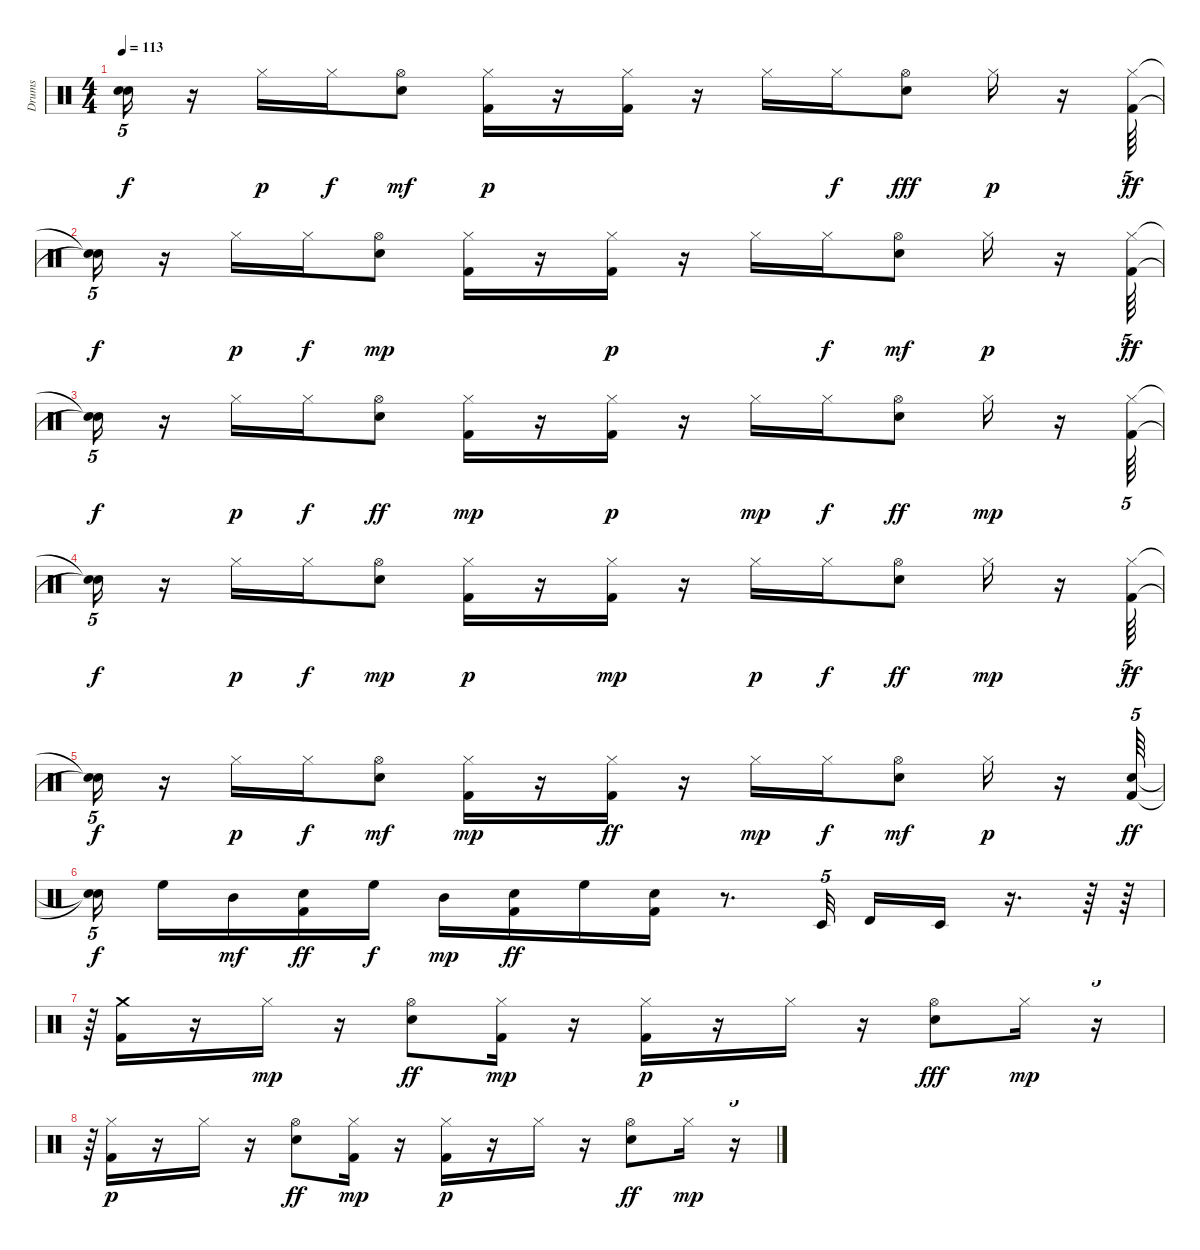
\track ("Drums" "Drums") {instrument percussion}
\staff {score}
\articulation defaults
\ts (4 4)
\tempo 113
\clef neutral
\ks c
("Snare (hit)"{t} "Snare (hit)"{t}).16{tu (5 4) dy f} r.16 "Hi-Hat (closed)".16{dy p} "Hi-Hat (closed)".16{dy f} ("Electric Snare (hit)" "Hi-Hat (open)").8{dy mf} ("Kick (hit) 2" "Hi-Hat (closed)").16{dy p} r.16 ("Kick (hit) 2" "Hi-Hat (closed)").16 r.16 "Hi-Hat (closed)".16 "Hi-Hat (closed)".16{dy f} ("Electric Snare (hit)" "Hi-Hat (open)").8{dy fff} "Hi-Hat (closed)".16{dy p} r.16 ("Hi-Hat (closed)" "Kick (hit) 2").64{tu (5 4) dy ff} |
("Snare (hit)"{t} "Snare (hit)"{t}).16{tu (5 4) dy f} r.16 "Hi-Hat (closed)".16{dy p} "Hi-Hat (closed)".16{dy f} ("Electric Snare (hit)" "Hi-Hat (open)").8{dy mp} ("Hi-Hat (closed)" "Kick (hit) 2").16 r.16 ("Kick (hit) 2" "Hi-Hat (closed)").16{dy p} r.16 "Hi-Hat (closed)".16 "Hi-Hat (closed)".16{dy f} ("Electric Snare (hit)" "Hi-Hat (open)").8{dy mf} "Hi-Hat (closed)".16{dy p} r.16 ("Hi-Hat (closed)" "Kick (hit) 2").64{tu (5 4) dy ff} |
("Snare (hit)"{t} "Snare (hit)"{t}).16{tu (5 4) dy f} r.16 "Hi-Hat (closed)".16{dy p} "Hi-Hat (closed)".16{dy f} ("Hi-Hat (open)" "Electric Snare (hit)").8{dy ff} ("Kick (hit) 2" "Hi-Hat (closed)").16{dy mp} r.16 ("Hi-Hat (closed)" "Kick (hit) 2").16{dy p} r.16 "Hi-Hat (closed)".16{dy mp} "Hi-Hat (closed)".16{dy f} ("Hi-Hat (open)" "Electric Snare (hit)").8{dy ff} "Hi-Hat (closed)".16{dy mp} r.16 ("Kick (hit) 2" "Hi-Hat (closed)").64{tu (5 4)} |
("Snare (hit)"{t} "Snare (hit)"{t}).16{tu (5 4) dy f} r.16 "Hi-Hat (closed)".16{dy p} "Hi-Hat (closed)".16{dy f} ("Electric Snare (hit)" "Hi-Hat (open)").8{dy mp} ("Hi-Hat (closed)" "Kick (hit) 2").16{dy p} r.16 ("Hi-Hat (closed)" "Kick (hit) 2").16{dy mp} r.16 "Hi-Hat (closed)".16{dy p} "Hi-Hat (closed)".16{dy f} ("Hi-Hat (open)" "Electric Snare (hit)").8{dy ff} "Hi-Hat (closed)".16{dy mp} r.16 ("Hi-Hat (closed)" "Kick (hit) 2").64{tu (5 4) dy ff} |
("Snare (hit)"{t} "Snare (hit)"{t}).16{tu (5 4) dy f} r.16 "Hi-Hat (closed)".16{dy p} "Hi-Hat (closed)".16{dy f} ("Electric Snare (hit)" "Hi-Hat (open)").8{dy mf} ("Kick (hit) 2" "Hi-Hat (closed)").16{dy mp} r.16 ("Hi-Hat (closed)" "Kick (hit) 2").16{dy ff} r.16 "Hi-Hat (closed)".16{dy mp} "Hi-Hat (closed)".16{dy f} ("Electric Snare (hit)" "Hi-Hat (open)").8{dy mf} "Hi-Hat (closed)".16{dy p} r.16 ("Kick (hit) 2" "Electric Snare (hit)").64{tu (5 4) dy ff} |
("Snare (hit)"{t} "Snare (hit)"{t}).16{tu (5 4) dy f beam splitsecondary} "High Floor Tom (hit)".16 "Mid Tom (hit)".16{dy mf} ("Kick (hit) 2" "Electric Snare (hit)").16{dy ff} "High Floor Tom (hit)".16{dy f} "Mid Tom (hit)".16{dy mp} ("Kick (hit) 2" "Electric Snare (hit)").16{dy ff} "High Floor Tom (hit)".16 ("Kick (hit) 2" "Electric Snare (hit)").16 r.8{d} "Timbale low (hit)".32{tu (5 4)} "Timbale high (hit)".16 "Timbale low (hit)".16 r.16{d} r.64 r.64 |
r.64{tu (5 4)} ("Crash medium (hit)" "Kick (hit) 2").16 r.16 "Hi-Hat (closed)".16{dy mp} r.16 ("Hi-Hat (open)" "Electric Snare (hit)").8{dy ff} ("Kick (hit) 2" "Hi-Hat (closed)").16{dy mp} r.16 ("Kick (hit) 2" "Hi-Hat (closed)").16{dy p} r.16 "Hi-Hat (closed)".16 r.16 ("Hi-Hat (open)" "Electric Snare (hit)").8{dy fff} "Hi-Hat (closed)".16{dy mp} r.16{tu (5 4)} |
r.64{tu (5 4)} ("Kick (hit) 2" "Hi-Hat (closed)").16{dy p} r.16 "Hi-Hat (closed)".16 r.16 ("Hi-Hat (open)" "Electric Snare (hit)").8{dy ff} ("Kick (hit) 2" "Hi-Hat (closed)").16{dy mp} r.16 ("Hi-Hat (closed)" "Kick (hit) 2").16{dy p} r.16 "Hi-Hat (closed)".16 r.16 ("Hi-Hat (open)" "Electric Snare (hit)").8{dy ff} "Hi-Hat (closed)".16{dy mp} r.16{tu (5 4)}
